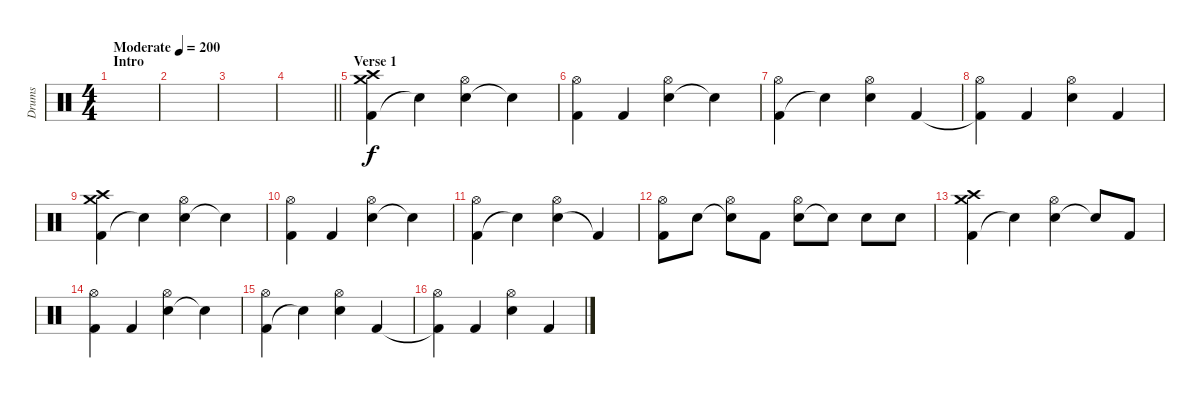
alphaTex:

\track ("Drums" "Drums") {instrument percussion}
\staff {score}
\articulation defaults
\ts (4 4)
\section ("" "Intro")
\tempo (200 "Moderate")
\clef neutral
\ks c
|
|
|
\barLineRight lightlight
|
\section ("" "Verse 1")
("Kick (hit) 2" "Crash medium (hit)" "Crash high (hit)").4 "Electric Snare (hit)"{t}.4 ("Electric Snare (hit)" "Hi-Hat (open)").4 "Snare (hit)"{t}.4 |
("Kick (hit) 2" "Hi-Hat (open)").4 "Kick (hit) 2".4 ("Electric Snare (hit)" "Hi-Hat (open)").4 "Snare (hit)"{t}.4 |
("Kick (hit) 2" "Hi-Hat (open)").4 "Electric Snare (hit)"{t}.4 ("Electric Snare (hit)" "Hi-Hat (open)").4 "Kick (hit) 2".4 |
("Kick (hit) 2"{t} "Hi-Hat (open)").4 "Kick (hit) 2".4 ("Electric Snare (hit)" "Hi-Hat (open)").4 "Kick (hit) 2".4 |
("Kick (hit) 2" "Crash medium (hit)" "Crash high (hit)").4 "Electric Snare (hit)"{t}.4 ("Electric Snare (hit)" "Hi-Hat (open)").4 "Snare (hit)"{t}.4 |
("Kick (hit) 2" "Hi-Hat (open)").4 "Kick (hit) 2".4 ("Electric Snare (hit)" "Hi-Hat (open)").4 "Snare (hit)"{t}.4 |
("Kick (hit) 2" "Hi-Hat (open)").4 "Electric Snare (hit)"{t}.4 ("Electric Snare (hit)" "Hi-Hat (open)").4 "Kick (hit) 2"{t}.4 |
("Kick (hit) 2" "Hi-Hat (open)").8 "Electric Snare (hit)".8 ("Electric Snare (hit)"{t} "Hi-Hat (open)").8 "Kick (hit) 2".8 ("Electric Snare (hit)" "Hi-Hat (open)").8 "Snare (hit)"{t}.8 "Electric Snare (hit)".8 "Electric Snare (hit)".8 |
("Kick (hit) 2" "Crash medium (hit)" "Crash high (hit)").4 "Electric Snare (hit)"{t}.4 ("Electric Snare (hit)" "Hi-Hat (open)").4 "Snare (hit)"{t}.8 "Kick (hit) 2".8 |
("Kick (hit) 2" "Hi-Hat (open)").4 "Kick (hit) 2".4 ("Electric Snare (hit)" "Hi-Hat (open)").4 "Snare (hit)"{t}.4 |
("Kick (hit) 2" "Hi-Hat (open)").4 "Electric Snare (hit)"{t}.4 ("Electric Snare (hit)" "Hi-Hat (open)").4 "Kick (hit) 2".4 |
("Kick (hit) 2"{t} "Hi-Hat (open)").4 "Kick (hit) 2".4 ("Electric Snare (hit)" "Hi-Hat (open)").4 "Kick (hit) 2".4
